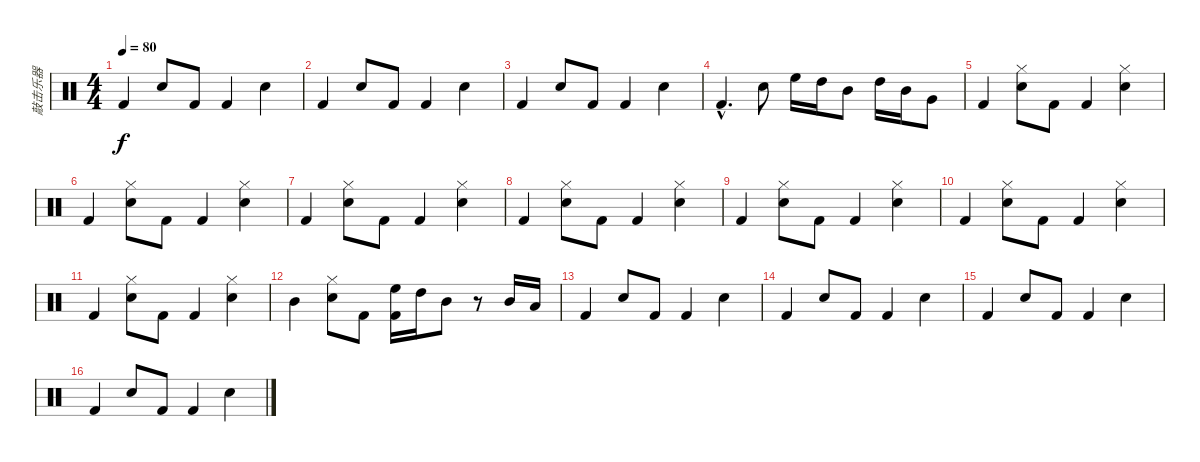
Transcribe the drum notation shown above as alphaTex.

\track ("敲击乐器" "敲击乐器") {instrument percussion}
\staff {score}
\articulation defaults
\ts (4 4)
\tempo 80
\clef neutral
\ks c "Kick (hit) 2".4{dy f} "Hand Clap (hit)".8 "Kick (hit) 2".8 "Kick (hit) 2".4 "Hand Clap (hit)".4
|
"Kick (hit) 2".4 "Hand Clap (hit)".8 "Kick (hit) 2".8 "Kick (hit) 2".4 "Hand Clap (hit)".4 |
"Kick (hit) 2".4 "Hand Clap (hit)".8 "Kick (hit) 2".8 "Kick (hit) 2".4 "Hand Clap (hit)".4 |
"Kick (hit) 2"{hac}.4{d} "Hand Clap (hit)".8 "High Floor Tom (hit)".16 "High Tom (hit)".16 "Mid Tom (hit)".8 "High Tom (hit)".16 "Mid Tom (hit)".16 "Very Low Tom (hit)".8 |
"Kick (hit) 2".4 ("Hand Clap (hit)" "Hi-Hat (closed)").8 "Kick (hit) 2".8 "Kick (hit) 2".4 ("Hand Clap (hit)" "Hi-Hat (closed)").4 |
"Kick (hit) 2".4 ("Hand Clap (hit)" "Hi-Hat (closed)").8 "Kick (hit) 2".8 "Kick (hit) 2".4 ("Hand Clap (hit)" "Hi-Hat (closed)").4 |
"Kick (hit) 2".4 ("Hand Clap (hit)" "Hi-Hat (closed)").8 "Kick (hit) 2".8 "Kick (hit) 2".4 ("Hand Clap (hit)" "Hi-Hat (closed)").4 |
"Kick (hit) 2".4 ("Hand Clap (hit)" "Hi-Hat (closed)").8 "Kick (hit) 2".8 "Kick (hit) 2".4 ("Hand Clap (hit)" "Hi-Hat (closed)").4 |
"Kick (hit) 2".4 ("Hand Clap (hit)" "Hi-Hat (closed)").8 "Kick (hit) 2".8 "Kick (hit) 2".4 ("Hand Clap (hit)" "Hi-Hat (closed)").4 |
"Kick (hit) 2".4 ("Hand Clap (hit)" "Hi-Hat (closed)").8 "Kick (hit) 2".8 "Kick (hit) 2".4 ("Hand Clap (hit)" "Hi-Hat (closed)").4 |
"Kick (hit) 2".4 ("Hand Clap (hit)" "Hi-Hat (closed)").8 "Kick (hit) 2".8 "Kick (hit) 2".4 ("Hand Clap (hit)" "Hi-Hat (closed)").4 |
"Mid Tom (hit)".4 ("Hand Clap (hit)" "Hi-Hat (closed)").8 "Kick (hit) 2".8 ("Kick (hit) 2" "High Floor Tom (hit)").16 "High Tom (hit)".16 "Mid Tom (hit)".8 r.8 "Mid Tom (hit)".16 "Low Tom (hit)".16 |
"Kick (hit) 2".4 "Hand Clap (hit)".8 "Kick (hit) 2".8 "Kick (hit) 2".4 "Hand Clap (hit)".4 |
"Kick (hit) 2".4 "Hand Clap (hit)".8 "Kick (hit) 2".8 "Kick (hit) 2".4 "Hand Clap (hit)".4 |
"Kick (hit) 2".4 "Hand Clap (hit)".8 "Kick (hit) 2".8 "Kick (hit) 2".4 "Hand Clap (hit)".4 |
"Kick (hit) 2".4 "Hand Clap (hit)".8 "Kick (hit) 2".8 "Kick (hit) 2".4 "Hand Clap (hit)".4
